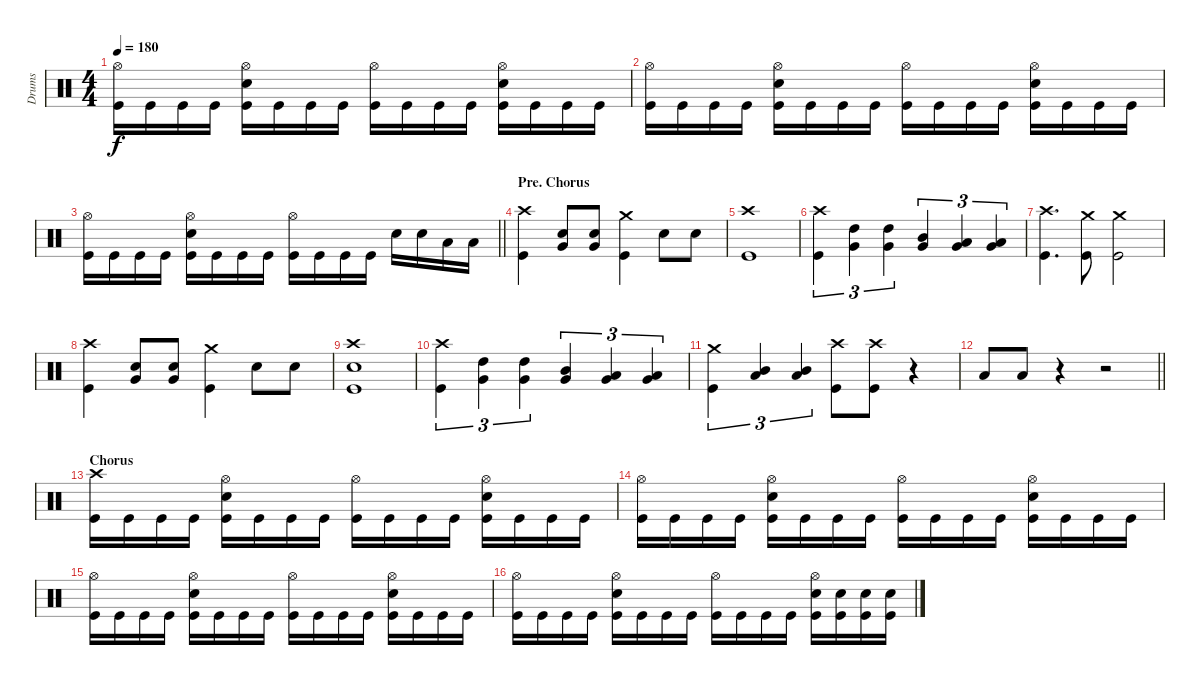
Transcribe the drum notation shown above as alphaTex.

\track ("Drums" "Drums") {instrument percussion}
\staff {score}
\articulation defaults
\ts (4 4)
\tempo 180
\clef neutral
\ks c
("Hi-Hat (open)" "Kick (hit)").16{dy f} "Kick (hit)".16 "Kick (hit)".16 "Kick (hit)".16 ("Hi-Hat (open)" "Electric Snare (hit)" "Kick (hit)").16 "Kick (hit)".16 "Kick (hit)".16 "Kick (hit)".16 ("Hi-Hat (open)" "Kick (hit)").16 "Kick (hit)".16 "Kick (hit)".16 "Kick (hit)".16 ("Hi-Hat (open)" "Electric Snare (hit)" "Kick (hit)").16 "Kick (hit)".16 "Kick (hit)".16 "Kick (hit)".16 |
("Hi-Hat (open)" "Kick (hit)").16 "Kick (hit)".16 "Kick (hit)".16 "Kick (hit)".16 ("Hi-Hat (open)" "Electric Snare (hit)" "Kick (hit)").16 "Kick (hit)".16 "Kick (hit)".16 "Kick (hit)".16 ("Hi-Hat (open)" "Kick (hit)").16 "Kick (hit)".16 "Kick (hit)".16 "Kick (hit)".16 ("Hi-Hat (open)" "Electric Snare (hit)" "Kick (hit)").16 "Kick (hit)".16 "Kick (hit)".16 "Kick (hit)".16 |
\barLineRight lightlight
("Hi-Hat (open)" "Kick (hit)").16 "Kick (hit)".16 "Kick (hit)".16 "Kick (hit)".16 ("Hi-Hat (open)" "Electric Snare (hit)" "Kick (hit)").16 "Kick (hit)".16 "Kick (hit)".16 "Kick (hit)".16 ("Hi-Hat (open)" "Kick (hit)").16 "Kick (hit)".16 "Kick (hit)".16 "Kick (hit)".16 "Electric Snare (hit)".16 "Electric Snare (hit)".16 "Low Tom (hit)".16 "Low Tom (hit)".16 |
\section ("" "Pre. Chorus")
("Crash high (hit)" "Kick (hit)").4 ("Very Low Tom (hit)" "Electric Snare (hit)").8 ("Very Low Tom (hit)" "Electric Snare (hit)").8 ("Crash medium (hit)" "Kick (hit)").4 "Electric Snare (hit)".8 "Electric Snare (hit)".8 |
("Crash high (hit)" "Kick (hit)").1 |
("Crash high (hit)" "Kick (hit)").4{tu (3 2)} ("Very Low Tom (hit)" "High Tom (hit)").4{tu (3 2)} ("Very Low Tom (hit)" "High Tom (hit)").4{tu (3 2)} ("Very Low Tom (hit)" "Mid Tom (hit)").4{tu (3 2)} ("Very Low Tom (hit)" "Low Tom (hit)").4{tu (3 2)} ("Low Floor Tom (hit)" "Very Low Tom (hit)").4{tu (3 2)} |
("Crash high (hit)" "Kick (hit)").4{d} ("Crash medium (hit)" "Kick (hit)").8 ("Crash medium (hit)" "Kick (hit)").2 |
("Crash high (hit)" "Kick (hit)").4 ("Very Low Tom (hit)" "Electric Snare (hit)").8 ("Very Low Tom (hit)" "Electric Snare (hit)").8 ("Crash medium (hit)" "Kick (hit)").4 "Electric Snare (hit)".8 "Electric Snare (hit)".8 |
("Crash high (hit)" "Electric Snare (hit)" "Kick (hit)").1 |
("Crash high (hit)" "Kick (hit)").4{tu (3 2)} ("Very Low Tom (hit)" "High Tom (hit)").4{tu (3 2)} ("Very Low Tom (hit)" "High Tom (hit)").4{tu (3 2)} ("Very Low Tom (hit)" "Mid Tom (hit)").4{tu (3 2)} ("Very Low Tom (hit)" "Low Tom (hit)").4{tu (3 2)} ("Very Low Tom (hit)" "Low Tom (hit)").4{tu (3 2)} |
("Crash medium (hit)" "Kick (hit)").4{tu (3 2)} ("Low Tom (hit)" "Mid Tom (hit)").4{tu (3 2)} ("Low Tom (hit)" "Mid Tom (hit)").4{tu (3 2)} ("Crash high (hit)" "Kick (hit)").8 ("Crash high (hit)" "Kick (hit)").8 r.4 |
\barLineRight lightlight "Low Tom (hit)".8 "Low Tom (hit)".8
r.4 r.2 |
\section ("" "Chorus")
("Crash high (hit)" "Kick (hit)").16 "Kick (hit)".16 "Kick (hit)".16 "Kick (hit)".16 ("Hi-Hat (open)" "Electric Snare (hit)" "Kick (hit)").16 "Kick (hit)".16 "Kick (hit)".16 "Kick (hit)".16 ("Hi-Hat (open)" "Kick (hit)").16 "Kick (hit)".16 "Kick (hit)".16 "Kick (hit)".16 ("Hi-Hat (open)" "Electric Snare (hit)" "Kick (hit)").16 "Kick (hit)".16 "Kick (hit)".16 "Kick (hit)".16 |
("Hi-Hat (open)" "Kick (hit)").16 "Kick (hit)".16 "Kick (hit)".16 "Kick (hit)".16 ("Hi-Hat (open)" "Electric Snare (hit)" "Kick (hit)").16 "Kick (hit)".16 "Kick (hit)".16 "Kick (hit)".16 ("Hi-Hat (open)" "Kick (hit)").16 "Kick (hit)".16 "Kick (hit)".16 "Kick (hit)".16 ("Hi-Hat (open)" "Electric Snare (hit)" "Kick (hit)").16 "Kick (hit)".16 "Kick (hit)".16 "Kick (hit)".16 |
("Hi-Hat (open)" "Kick (hit)").16 "Kick (hit)".16 "Kick (hit)".16 "Kick (hit)".16 ("Hi-Hat (open)" "Electric Snare (hit)" "Kick (hit)").16 "Kick (hit)".16 "Kick (hit)".16 "Kick (hit)".16 ("Hi-Hat (open)" "Kick (hit)").16 "Kick (hit)".16 "Kick (hit)".16 "Kick (hit)".16 ("Hi-Hat (open)" "Electric Snare (hit)" "Kick (hit)").16 "Kick (hit)".16 "Kick (hit)".16 "Kick (hit)".16 |
("Hi-Hat (open)" "Kick (hit)").16 "Kick (hit)".16 "Kick (hit)".16 "Kick (hit)".16 ("Hi-Hat (open)" "Electric Snare (hit)" "Kick (hit)").16 "Kick (hit)".16 "Kick (hit)".16 "Kick (hit)".16 ("Hi-Hat (open)" "Kick (hit)").16 "Kick (hit)".16 "Kick (hit)".16 "Kick (hit)".16 ("Hi-Hat (open)" "Electric Snare (hit)" "Kick (hit)").16 ("Electric Snare (hit)" "Kick (hit)").16 ("Electric Snare (hit)" "Kick (hit)").16 ("Electric Snare (hit)" "Kick (hit)").16
